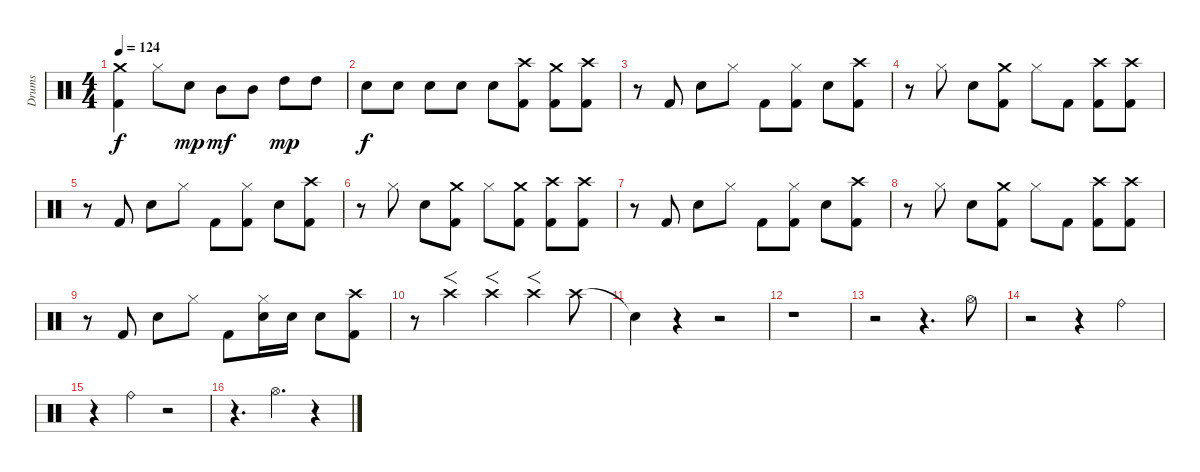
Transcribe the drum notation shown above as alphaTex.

\track ("Drums" "Drums") {instrument percussion}
\staff {score}
\articulation defaults
\ts (4 4)
\tempo 124
\clef neutral
\ks c
("Kick (hit) 2" "Crash medium (hit)").4{dy f} "Hi-Hat (closed)".8 "Snare (hit) 2".8{dy mp} "Mid Tom (hit)".8{dy mf} "Mid Tom (hit)".8 "High Tom (hit)".8{dy mp} "High Tom (hit)".8 |
"Snare (hit) 2".8{dy f} "Snare (hit) 2".8 "Snare (hit) 2".8 "Snare (hit) 2".8 "Snare (hit) 2".8 ("Kick (hit) 2" "Crash high (hit)").8 ("Kick (hit) 2" "Crash medium (hit)").8 ("Kick (hit) 2" "Crash high (hit)").8 |
r.8 "Kick (hit) 2".8 "Snare (hit) 2".8 "Hi-Hat (closed)".8 "Kick (hit) 2".8 ("Kick (hit) 2" "Hi-Hat (closed)").8 "Snare (hit) 2".8 ("Kick (hit) 2" "Crash high (hit)").8 |
r.8 "Hi-Hat (closed)".8 "Snare (hit) 2".8 ("Kick (hit) 2" "Crash medium (hit)").8 "Hi-Hat (closed)".8 "Kick (hit) 2".8 ("Kick (hit) 2" "Crash high (hit)").8 ("Kick (hit) 2" "Crash high (hit)").8 |
r.8 "Kick (hit) 2".8 "Snare (hit) 2".8 "Hi-Hat (closed)".8 "Kick (hit) 2".8 ("Kick (hit) 2" "Hi-Hat (closed)").8 "Snare (hit) 2".8 ("Kick (hit) 2" "Crash high (hit)").8 |
r.8 "Hi-Hat (closed)".8 "Snare (hit) 2".8 ("Kick (hit) 2" "Crash medium (hit)").8 "Hi-Hat (closed)".8 ("Kick (hit) 2" "Crash medium (hit)").8 ("Kick (hit) 2" "Crash high (hit)").8 ("Kick (hit) 2" "Crash high (hit)").8 |
r.8 "Kick (hit) 2".8 "Snare (hit) 2".8 "Hi-Hat (closed)".8 "Kick (hit) 2".8 ("Kick (hit) 2" "Hi-Hat (closed)").8 "Snare (hit) 2".8 ("Kick (hit) 2" "Crash high (hit)").8 |
r.8 "Hi-Hat (closed)".8 "Snare (hit) 2".8 ("Kick (hit) 2" "Crash medium (hit)").8 "Hi-Hat (closed)".8 "Kick (hit) 2".8 ("Kick (hit) 2" "Crash high (hit)").8 ("Kick (hit) 2" "Crash high (hit)").8 |
r.8 "Kick (hit) 2".8 "Snare (hit) 2".8 "Hi-Hat (closed)".8 "Kick (hit) 2".8 ("Snare (hit) 2" "Hi-Hat (closed)").16 "Snare (hit) 2".16 "Snare (hit) 2".8 ("Kick (hit) 2" "Crash high (hit)").8 |
r.8 "Crash high (hit)".4{f} "Crash high (hit)".4{f} "Crash high (hit)".4{f} "Crash high (hit)".8 |
"Snare (hit)"{t}.4 r.4 r.2 |
r.1 |
r.2 r.4{d} "Hi-Hat (open)".8 |
r.2 r.4 "Ride (bell)".4 |
r.4 "Ride (bell)".4 r.2 |
r.4{d} "Hi-Hat (open)".4{d} r.4
